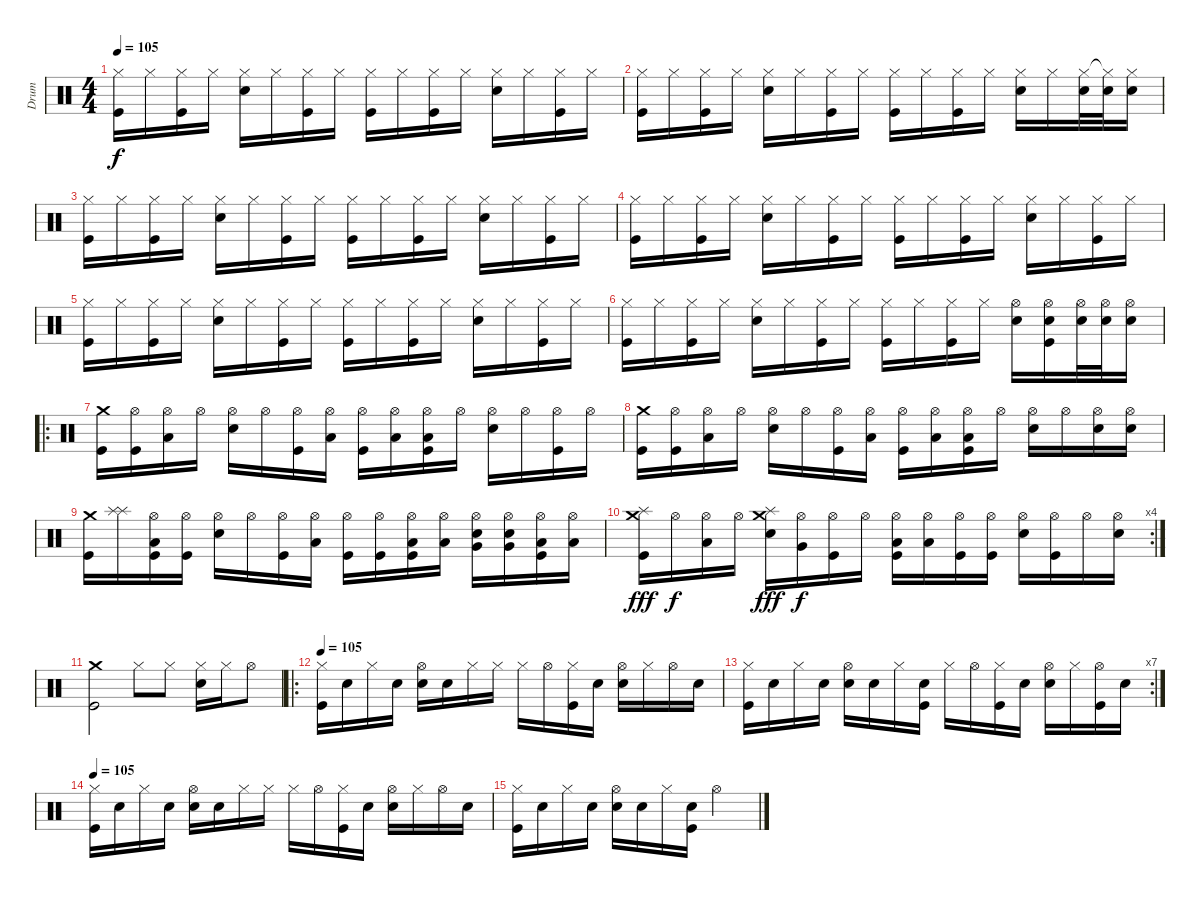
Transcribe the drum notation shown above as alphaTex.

\track ("Drum" "Drum") {instrument percussion}
\staff {score}
\articulation defaults
\ts (4 4)
\tempo 105
\clef neutral
\ks c
("Hi-Hat (closed)" "Kick (hit)").16{dy f} "Hi-Hat (closed)".16 ("Hi-Hat (closed)" "Kick (hit)").16 "Hi-Hat (closed)".16 ("Hi-Hat (closed)" "Snare (hit) 2").16 "Hi-Hat (closed)".16 ("Hi-Hat (closed)" "Kick (hit)").16 "Hi-Hat (closed)".16 ("Hi-Hat (closed)" "Kick (hit)").16 "Hi-Hat (closed)".16 ("Hi-Hat (closed)" "Kick (hit)").16 "Hi-Hat (closed)".16 ("Hi-Hat (closed)" "Snare (hit) 2").16 "Hi-Hat (closed)".16 ("Hi-Hat (closed)" "Kick (hit)").16 "Hi-Hat (closed)".16 |
("Hi-Hat (closed)" "Kick (hit)").16 "Hi-Hat (closed)".16 ("Hi-Hat (closed)" "Kick (hit)").16 "Hi-Hat (closed)".16 ("Hi-Hat (closed)" "Snare (hit) 2").16 "Hi-Hat (closed)".16 ("Hi-Hat (closed)" "Kick (hit)").16 "Hi-Hat (closed)".16 ("Hi-Hat (closed)" "Kick (hit)").16 "Hi-Hat (closed)".16 ("Hi-Hat (closed)" "Kick (hit)").16 "Hi-Hat (closed)".16 ("Hi-Hat (closed)" "Snare (hit) 2").16 "Hi-Hat (closed)".16 ("Hi-Hat (closed)" "Snare (hit) 2").32 ("Hi-Hat (closed)"{t} "Snare (hit) 2").32 ("Hi-Hat (closed)" "Snare (hit) 2").16 |
("Hi-Hat (closed)" "Kick (hit)").16 "Hi-Hat (closed)".16 ("Hi-Hat (closed)" "Kick (hit)").16 "Hi-Hat (closed)".16 ("Hi-Hat (closed)" "Snare (hit) 2").16 "Hi-Hat (closed)".16 ("Hi-Hat (closed)" "Kick (hit)").16 "Hi-Hat (closed)".16 ("Hi-Hat (closed)" "Kick (hit)").16 "Hi-Hat (closed)".16 ("Hi-Hat (closed)" "Kick (hit)").16 "Hi-Hat (closed)".16 ("Hi-Hat (closed)" "Snare (hit) 2").16 "Hi-Hat (closed)".16 ("Hi-Hat (closed)" "Kick (hit)").16 "Hi-Hat (closed)".16 |
("Hi-Hat (closed)" "Kick (hit)").16 "Hi-Hat (closed)".16 ("Hi-Hat (closed)" "Kick (hit)").16 "Hi-Hat (closed)".16 ("Hi-Hat (closed)" "Snare (hit) 2").16 "Hi-Hat (closed)".16 ("Hi-Hat (closed)" "Kick (hit)").16 "Hi-Hat (closed)".16 ("Hi-Hat (closed)" "Kick (hit)").16 "Hi-Hat (closed)".16 ("Hi-Hat (closed)" "Kick (hit)").16 "Hi-Hat (closed)".16 ("Hi-Hat (closed)" "Snare (hit) 2").16 "Hi-Hat (closed)".16 ("Hi-Hat (closed)" "Kick (hit)").16 "Hi-Hat (closed)".16 |
("Hi-Hat (closed)" "Kick (hit)").16 "Hi-Hat (closed)".16 ("Hi-Hat (closed)" "Kick (hit)").16 "Hi-Hat (closed)".16 ("Hi-Hat (closed)" "Snare (hit) 2").16 "Hi-Hat (closed)".16 ("Hi-Hat (closed)" "Kick (hit)").16 "Hi-Hat (closed)".16 ("Hi-Hat (closed)" "Kick (hit)").16 "Hi-Hat (closed)".16 ("Hi-Hat (closed)" "Kick (hit)").16 "Hi-Hat (closed)".16 ("Hi-Hat (closed)" "Snare (hit) 2").16 "Hi-Hat (closed)".16 ("Hi-Hat (closed)" "Kick (hit)").16 "Hi-Hat (closed)".16 |
("Hi-Hat (closed)" "Kick (hit)").16 "Hi-Hat (closed)".16 ("Hi-Hat (closed)" "Kick (hit)").16 "Hi-Hat (closed)".16 ("Hi-Hat (closed)" "Snare (hit) 2").16 "Hi-Hat (closed)".16 ("Hi-Hat (closed)" "Kick (hit)").16 "Hi-Hat (closed)".16 ("Hi-Hat (closed)" "Kick (hit)").16 "Hi-Hat (closed)".16 ("Hi-Hat (closed)" "Kick (hit)").16 "Hi-Hat (closed)".16 ("Hi-Hat (open)" "Snare (hit) 2").16 ("Hi-Hat (open)" "Snare (hit) 2" "Kick (hit)").16 ("Hi-Hat (open)" "Snare (hit) 2").32 ("Hi-Hat (open)" "Snare (hit) 2").32 ("Hi-Hat (open)" "Snare (hit) 2").16 |
\ro
("Crash medium (hit)" "Kick (hit)").16{volume 16} ("Hi-Hat (open)" "Kick (hit)").16 ("Hi-Hat (open)" "Low Floor Tom (hit)").16 "Hi-Hat (open)".16 ("Hi-Hat (open)" "Snare (hit) 2").16 "Hi-Hat (open)".16 ("Hi-Hat (open)" "Kick (hit)").16 ("Hi-Hat (open)" "Low Tom (hit)").16 ("Hi-Hat (open)" "Kick (hit)").16 ("Hi-Hat (open)" "Low Tom (hit)").16 ("Hi-Hat (open)" "Low Tom (hit)" "Kick (hit)").16 "Hi-Hat (open)".16 ("Hi-Hat (open)" "Snare (hit) 2").16 "Hi-Hat (open)".16 ("Hi-Hat (open)" "Kick (hit)").16 "Hi-Hat (open)".16 |
("Crash medium (hit)" "Kick (hit)").16 ("Hi-Hat (open)" "Kick (hit)").16 ("Hi-Hat (open)" "Low Floor Tom (hit)").16 "Hi-Hat (open)".16 ("Hi-Hat (open)" "Snare (hit) 2").16 "Hi-Hat (open)".16 ("Hi-Hat (open)" "Kick (hit)").16 ("Hi-Hat (open)" "Low Tom (hit)").16 ("Hi-Hat (open)" "Kick (hit)").16 ("Hi-Hat (open)" "Low Tom (hit)").16 ("Hi-Hat (open)" "Low Tom (hit)" "Kick (hit)").16 "Hi-Hat (open)".16 ("Hi-Hat (open)" "Snare (hit) 2").16 "Hi-Hat (open)".16 ("Hi-Hat (open)" "Snare (hit) 2").16 ("Hi-Hat (open)" "Snare (hit) 2").16 |
("Crash medium (hit)" "Kick (hit)").16 ("Splash (hit)" "Splash (hit)").16 ("Hi-Hat (open)" "Low Floor Tom (hit)" "Kick (hit)").16 ("Hi-Hat (open)" "Kick (hit)").16 ("Hi-Hat (open)" "Snare (hit) 2").16 "Hi-Hat (open)".16 ("Hi-Hat (open)" "Kick (hit)").16 ("Hi-Hat (open)" "Low Tom (hit)").16 ("Hi-Hat (open)" "Kick (hit)").16 ("Hi-Hat (open)" "Kick (hit)").16 ("Hi-Hat (open)" "Low Tom (hit)" "Kick (hit)").16 ("Hi-Hat (open)" "Low Tom (hit)").16 ("Hi-Hat (open)" "Very Low Tom (hit)" "Electric Snare (hit)").16 ("Hi-Hat (open)" "Very Low Tom (hit)" "Electric Snare (hit)").16 ("Hi-Hat (open)" "Low Floor Tom (hit)" "Kick (hit)").16 ("Hi-Hat (open)" "Low Floor Tom (hit)").16 |
\rc 4
("Crash medium (hit)" "Splash (hit)" "Kick (hit)").16{dy fff} "Hi-Hat (open)".16{dy f} ("Hi-Hat (open)" "Low Tom (hit)").16 "Hi-Hat (open)".16 ("Crash medium (hit)" "Splash (hit)" "Snare (hit) 2").16{dy fff} ("Hi-Hat (open)" "Very Low Tom (hit)").16{dy f} ("Hi-Hat (open)" "Kick (hit)").16 "Hi-Hat (open)".16 ("Hi-Hat (open)" "Low Floor Tom (hit)" "Kick (hit)").16 ("Hi-Hat (open)" "Low Floor Tom (hit)").16 ("Hi-Hat (open)" "Kick (hit)").16 ("Hi-Hat (open)" "Kick (hit)").16 ("Hi-Hat (open)" "Snare (hit) 2").16 ("Hi-Hat (open)" "Kick (hit)").16 "Hi-Hat (open)".16 ("Hi-Hat (open)" "Snare (hit) 2").16 |
("Crash medium (hit)" "Kick (hit)").2 "Hi-Hat (closed)".8 "Hi-Hat (closed)".8 ("Hi-Hat (closed)" "Snare (hit) 2").16 "Hi-Hat (closed)".16 "Hi-Hat (open)".8 |
\ro
\tempo 105
("Hi-Hat (closed)" "Kick (hit)").16{volume 13} "Snare (hit)".16 "Hi-Hat (closed)".16 "Snare (hit)".16 ("Hi-Hat (open)" "Snare (hit) 2").16 "Snare (hit)".16 "Hi-Hat (closed)".16 "Hi-Hat (closed)".16 "Hi-Hat (closed)".16 "Hi-Hat (open)".16 ("Hi-Hat (closed)" "Kick (hit)").16 "Snare (hit)".16 ("Hi-Hat (open)" "Snare (hit) 2").16 "Hi-Hat (closed)".16 "Hi-Hat (open)".16 "Snare (hit)".16 |
\rc 7
("Hi-Hat (closed)" "Kick (hit)").16 "Snare (hit)".16 "Hi-Hat (closed)".16 "Snare (hit)".16 ("Hi-Hat (open)" "Snare (hit) 2").16 "Snare (hit)".16 "Hi-Hat (closed)".16 ("Snare (hit)" "Kick (hit)").16 "Hi-Hat (closed)".16 "Hi-Hat (open)".16 ("Hi-Hat (closed)" "Kick (hit)").16 "Snare (hit)".16 ("Hi-Hat (open)" "Snare (hit) 2").16 "Hi-Hat (closed)".16 ("Hi-Hat (open)" "Kick (hit)").16 "Snare (hit)".16 |
\tempo 105
("Hi-Hat (closed)" "Kick (hit)").16 "Snare (hit)".16 "Hi-Hat (closed)".16 "Snare (hit)".16 ("Hi-Hat (open)" "Snare (hit) 2").16 "Snare (hit)".16 "Hi-Hat (closed)".16 "Hi-Hat (closed)".16 "Hi-Hat (closed)".16 "Hi-Hat (open)".16 ("Hi-Hat (closed)" "Kick (hit)").16 "Snare (hit)".16 ("Hi-Hat (open)" "Snare (hit) 2").16 "Hi-Hat (closed)".16 "Hi-Hat (open)".16 "Snare (hit)".16 |
("Hi-Hat (closed)" "Kick (hit)").16 "Snare (hit)".16 "Hi-Hat (closed)".16 "Snare (hit)".16 ("Hi-Hat (open)" "Snare (hit) 2").16 "Snare (hit)".16 "Hi-Hat (closed)".16 ("Snare (hit)" "Kick (hit)").16 "Hi-Hat (open)".2
